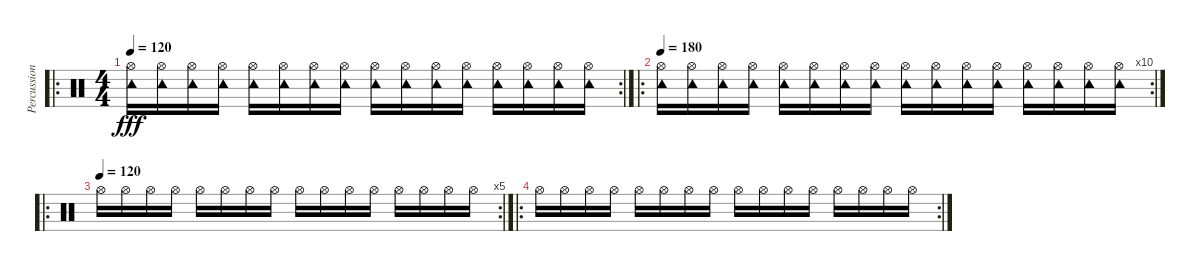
\track ("Percussion" "Percussion") {instrument percussion}
\staff {score}
\articulation defaults
\ro
\rc 2
\ts (4 4)
\tempo 120
\clef neutral
\ks c
("Hi-Hat (open)" "Tambourine (hit)").16{dy fff} ("Hi-Hat (open)" "Tambourine (hit)").16 ("Hi-Hat (open)" "Tambourine (hit)").16 ("Hi-Hat (open)" "Tambourine (hit)").16 ("Hi-Hat (open)" "Tambourine (hit)").16 ("Hi-Hat (open)" "Tambourine (hit)").16 ("Hi-Hat (open)" "Tambourine (hit)").16 ("Hi-Hat (open)" "Tambourine (hit)").16 ("Hi-Hat (open)" "Tambourine (hit)").16 ("Hi-Hat (open)" "Tambourine (hit)").16 ("Hi-Hat (open)" "Tambourine (hit)").16 ("Hi-Hat (open)" "Tambourine (hit)").16 ("Hi-Hat (open)" "Tambourine (hit)").16 ("Hi-Hat (open)" "Tambourine (hit)").16 ("Hi-Hat (open)" "Tambourine (hit)").16 ("Hi-Hat (open)" "Tambourine (hit)").16 |
\ro
\rc 10
\tempo 180
("Hi-Hat (open)" "Tambourine (hit)").16 ("Hi-Hat (open)" "Tambourine (hit)").16 ("Hi-Hat (open)" "Tambourine (hit)").16 ("Hi-Hat (open)" "Tambourine (hit)").16 ("Hi-Hat (open)" "Tambourine (hit)").16 ("Hi-Hat (open)" "Tambourine (hit)").16 ("Hi-Hat (open)" "Tambourine (hit)").16 ("Hi-Hat (open)" "Tambourine (hit)").16 ("Hi-Hat (open)" "Tambourine (hit)").16 ("Hi-Hat (open)" "Tambourine (hit)").16 ("Hi-Hat (open)" "Tambourine (hit)").16 ("Hi-Hat (open)" "Tambourine (hit)").16 ("Hi-Hat (open)" "Tambourine (hit)").16 ("Hi-Hat (open)" "Tambourine (hit)").16 ("Hi-Hat (open)" "Tambourine (hit)").16 ("Hi-Hat (open)" "Tambourine (hit)").16 |
\ro
\rc 5
\tempo (120)
"Hi-Hat (open)".16 "Hi-Hat (open)".16 "Hi-Hat (open)".16 "Hi-Hat (open)".16 "Hi-Hat (open)".16 "Hi-Hat (open)".16 "Hi-Hat (open)".16 "Hi-Hat (open)".16 "Hi-Hat (open)".16 "Hi-Hat (open)".16 "Hi-Hat (open)".16 "Hi-Hat (open)".16 "Hi-Hat (open)".16 "Hi-Hat (open)".16 "Hi-Hat (open)".16 "Hi-Hat (open)".16 |
\ro
\rc 2 "Hi-Hat (open)".16{volume 0} "Hi-Hat (open)".16 "Hi-Hat (open)".16 "Hi-Hat (open)".16 "Hi-Hat (open)".16 "Hi-Hat (open)".16 "Hi-Hat (open)".16 "Hi-Hat (open)".16 "Hi-Hat (open)".16 "Hi-Hat (open)".16 "Hi-Hat (open)".16 "Hi-Hat (open)".16 "Hi-Hat (open)".16 "Hi-Hat (open)".16 "Hi-Hat (open)".16 "Hi-Hat (open)".16
